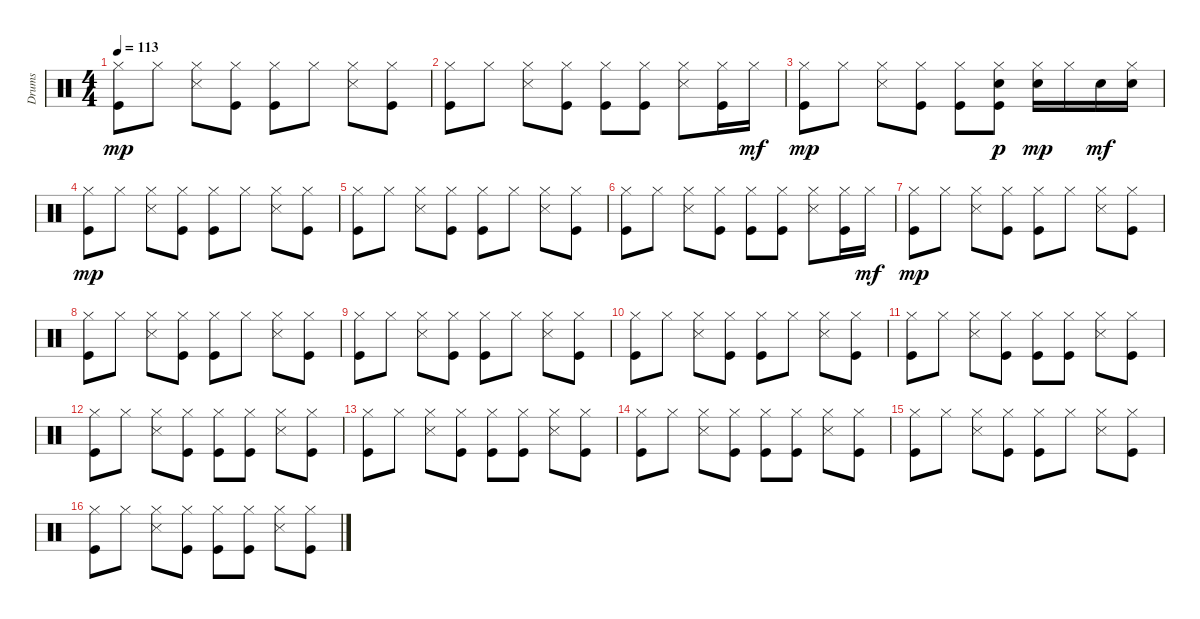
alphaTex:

\track ("Drums" "Drums") {instrument percussion}
\staff {score}
\articulation defaults
\ts (4 4)
\tempo 113
\clef neutral
\ks c
("Kick (hit)" "Hi-Hat (closed)").8{dy mp} "Hi-Hat (closed)".8 ("Snare (side stick) 3" "Hi-Hat (closed)").8 ("Kick (hit)" "Hi-Hat (closed)").8 ("Kick (hit)" "Hi-Hat (closed)").8 "Hi-Hat (closed)".8 ("Snare (side stick) 3" "Hi-Hat (closed)").8 ("Kick (hit)" "Hi-Hat (closed)").8 |
("Kick (hit)" "Hi-Hat (closed)").8 "Hi-Hat (closed)".8 ("Snare (side stick) 3" "Hi-Hat (closed)").8 ("Kick (hit)" "Hi-Hat (closed)").8 ("Kick (hit)" "Hi-Hat (closed)").8 ("Kick (hit)" "Hi-Hat (closed)").8 ("Snare (side stick) 3" "Hi-Hat (closed)").8 ("Kick (hit)" "Hi-Hat (closed)").16 "Hi-Hat (closed)".16{dy mf} |
("Kick (hit)" "Hi-Hat (closed)").8{dy mp} "Hi-Hat (closed)".8 ("Snare (side stick) 3" "Hi-Hat (closed)").8 ("Kick (hit)" "Hi-Hat (closed)").8 ("Kick (hit)" "Hi-Hat (closed)").8 ("Kick (hit)" "Hi-Hat (closed)" "Snare (hit) 2").8{dy p} ("Snare (hit) 2" "Hi-Hat (closed)").16{dy mp} "Hi-Hat (closed)".16 "Snare (hit) 2".16{dy mf} ("Snare (hit) 2" "Hi-Hat (closed)").16 |
("Kick (hit)" "Hi-Hat (closed)").8{dy mp} "Hi-Hat (closed)".8 ("Snare (side stick) 3" "Hi-Hat (closed)").8 ("Kick (hit)" "Hi-Hat (closed)").8 ("Kick (hit)" "Hi-Hat (closed)").8 "Hi-Hat (closed)".8 ("Snare (side stick) 3" "Hi-Hat (closed)").8 ("Kick (hit)" "Hi-Hat (closed)").8 |
("Kick (hit)" "Hi-Hat (closed)").8 "Hi-Hat (closed)".8 ("Snare (side stick) 3" "Hi-Hat (closed)").8 ("Kick (hit)" "Hi-Hat (closed)").8 ("Kick (hit)" "Hi-Hat (closed)").8 "Hi-Hat (closed)".8 ("Snare (side stick) 3" "Hi-Hat (closed)").8 ("Kick (hit)" "Hi-Hat (closed)").8 |
("Kick (hit)" "Hi-Hat (closed)").8 "Hi-Hat (closed)".8 ("Snare (side stick) 3" "Hi-Hat (closed)").8 ("Kick (hit)" "Hi-Hat (closed)").8 ("Kick (hit)" "Hi-Hat (closed)").8 ("Kick (hit)" "Hi-Hat (closed)").8 ("Snare (side stick) 3" "Hi-Hat (closed)").8 ("Kick (hit)" "Hi-Hat (closed)").16 "Hi-Hat (closed)".16{dy mf} |
("Kick (hit)" "Hi-Hat (closed)").8{dy mp} "Hi-Hat (closed)".8 ("Snare (side stick) 3" "Hi-Hat (closed)").8 ("Kick (hit)" "Hi-Hat (closed)").8 ("Kick (hit)" "Hi-Hat (closed)").8 "Hi-Hat (closed)".8 ("Snare (side stick) 3" "Hi-Hat (closed)").8 ("Kick (hit)" "Hi-Hat (closed)").8 |
("Kick (hit)" "Hi-Hat (closed)").8 "Hi-Hat (closed)".8 ("Snare (side stick) 3" "Hi-Hat (closed)").8 ("Kick (hit)" "Hi-Hat (closed)").8 ("Kick (hit)" "Hi-Hat (closed)").8 "Hi-Hat (closed)".8 ("Snare (side stick) 3" "Hi-Hat (closed)").8 ("Kick (hit)" "Hi-Hat (closed)").8 |
("Kick (hit)" "Hi-Hat (closed)").8 "Hi-Hat (closed)".8 ("Snare (side stick) 3" "Hi-Hat (closed)").8 ("Kick (hit)" "Hi-Hat (closed)").8 ("Kick (hit)" "Hi-Hat (closed)").8 "Hi-Hat (closed)".8 ("Snare (side stick) 3" "Hi-Hat (closed)").8 ("Kick (hit)" "Hi-Hat (closed)").8 |
("Kick (hit)" "Hi-Hat (closed)").8 "Hi-Hat (closed)".8 ("Snare (side stick) 3" "Hi-Hat (closed)").8 ("Kick (hit)" "Hi-Hat (closed)").8 ("Kick (hit)" "Hi-Hat (closed)").8 "Hi-Hat (closed)".8 ("Snare (side stick) 3" "Hi-Hat (closed)").8 ("Kick (hit)" "Hi-Hat (closed)").8 |
("Kick (hit)" "Hi-Hat (closed)").8 "Hi-Hat (closed)".8 ("Snare (side stick) 3" "Hi-Hat (closed)").8 ("Kick (hit)" "Hi-Hat (closed)").8 ("Kick (hit)" "Hi-Hat (closed)").8 ("Kick (hit)" "Hi-Hat (closed)").8 ("Snare (side stick) 3" "Hi-Hat (closed)").8 ("Kick (hit)" "Hi-Hat (closed)").8 |
("Kick (hit)" "Hi-Hat (closed)").8 "Hi-Hat (closed)".8 ("Snare (side stick) 3" "Hi-Hat (closed)").8 ("Kick (hit)" "Hi-Hat (closed)").8 ("Kick (hit)" "Hi-Hat (closed)").8 ("Kick (hit)" "Hi-Hat (closed)").8 ("Snare (side stick) 3" "Hi-Hat (closed)").8 ("Kick (hit)" "Hi-Hat (closed)").8 |
("Kick (hit)" "Hi-Hat (closed)").8 "Hi-Hat (closed)".8 ("Snare (side stick) 3" "Hi-Hat (closed)").8 ("Kick (hit)" "Hi-Hat (closed)").8 ("Kick (hit)" "Hi-Hat (closed)").8 ("Kick (hit)" "Hi-Hat (closed)").8 ("Snare (side stick) 3" "Hi-Hat (closed)").8 ("Kick (hit)" "Hi-Hat (closed)").8 |
("Kick (hit)" "Hi-Hat (closed)").8 "Hi-Hat (closed)".8 ("Snare (side stick) 3" "Hi-Hat (closed)").8 ("Kick (hit)" "Hi-Hat (closed)").8 ("Kick (hit)" "Hi-Hat (closed)").8 ("Kick (hit)" "Hi-Hat (closed)").8 ("Snare (side stick) 3" "Hi-Hat (closed)").8 ("Kick (hit)" "Hi-Hat (closed)").8 |
("Kick (hit)" "Hi-Hat (closed)").8 "Hi-Hat (closed)".8 ("Snare (side stick) 3" "Hi-Hat (closed)").8 ("Kick (hit)" "Hi-Hat (closed)").8 ("Kick (hit)" "Hi-Hat (closed)").8 "Hi-Hat (closed)".8 ("Snare (side stick) 3" "Hi-Hat (closed)").8 ("Kick (hit)" "Hi-Hat (closed)").8 |
("Kick (hit)" "Hi-Hat (closed)").8 "Hi-Hat (closed)".8 ("Snare (side stick) 3" "Hi-Hat (closed)").8 ("Kick (hit)" "Hi-Hat (closed)").8 ("Kick (hit)" "Hi-Hat (closed)").8 ("Kick (hit)" "Hi-Hat (closed)").8 ("Snare (side stick) 3" "Hi-Hat (closed)").8 ("Kick (hit)" "Hi-Hat (closed)").8
